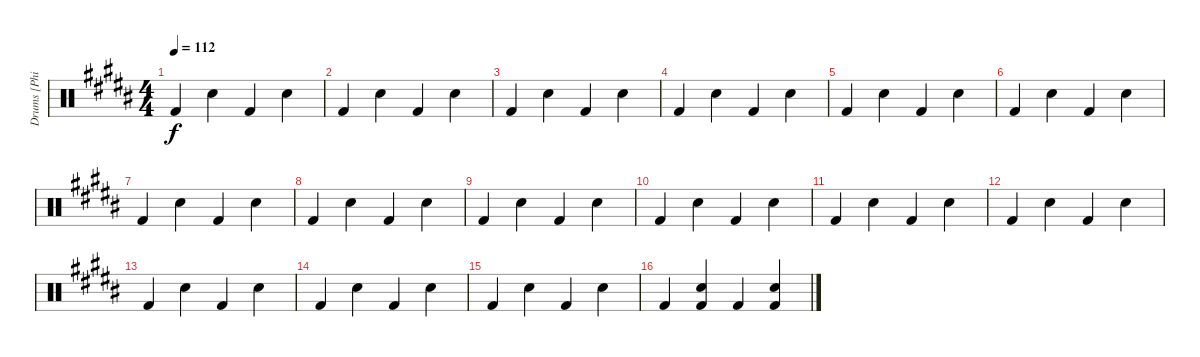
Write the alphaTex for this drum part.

\track ("Drums [Phill]" "Drums [Phi") {instrument percussion}
\staff {score}
\articulation defaults
\ts (4 4)
\tempo 112
\clef neutral
\ks b "Kick (hit) 2".4{dy f} "Snare (hit) 2".4 "Kick (hit) 2".4 "Snare (hit) 2".4
|
"Kick (hit) 2".4 "Snare (hit) 2".4 "Kick (hit) 2".4 "Snare (hit) 2".4 |
"Kick (hit) 2".4 "Snare (hit) 2".4 "Kick (hit) 2".4 "Snare (hit) 2".4 |
"Kick (hit) 2".4 "Snare (hit) 2".4 "Kick (hit) 2".4 "Snare (hit) 2".4 |
"Kick (hit) 2".4 "Snare (hit) 2".4 "Kick (hit) 2".4 "Snare (hit) 2".4 |
"Kick (hit) 2".4 "Snare (hit) 2".4 "Kick (hit) 2".4 "Snare (hit) 2".4 |
"Kick (hit) 2".4 "Snare (hit) 2".4 "Kick (hit) 2".4 "Snare (hit) 2".4 |
"Kick (hit) 2".4 "Snare (hit) 2".4 "Kick (hit) 2".4 "Snare (hit) 2".4 |
"Kick (hit) 2".4 "Snare (hit) 2".4 "Kick (hit) 2".4 "Snare (hit) 2".4 |
"Kick (hit) 2".4 "Snare (hit) 2".4 "Kick (hit) 2".4 "Snare (hit) 2".4 |
"Kick (hit) 2".4 "Snare (hit) 2".4 "Kick (hit) 2".4 "Snare (hit) 2".4 |
"Kick (hit) 2".4 "Snare (hit) 2".4 "Kick (hit) 2".4 "Snare (hit) 2".4 |
"Kick (hit) 2".4 "Snare (hit) 2".4 "Kick (hit) 2".4 "Snare (hit) 2".4 |
"Kick (hit) 2".4 "Snare (hit) 2".4 "Kick (hit) 2".4 "Snare (hit) 2".4 |
"Kick (hit) 2".4 "Snare (hit) 2".4 "Kick (hit) 2".4 "Snare (hit) 2".4 |
"Kick (hit) 2".4 ("Snare (hit) 2" "Kick (hit) 2").4 "Kick (hit) 2".4 ("Snare (hit) 2" "Kick (hit) 2").4
